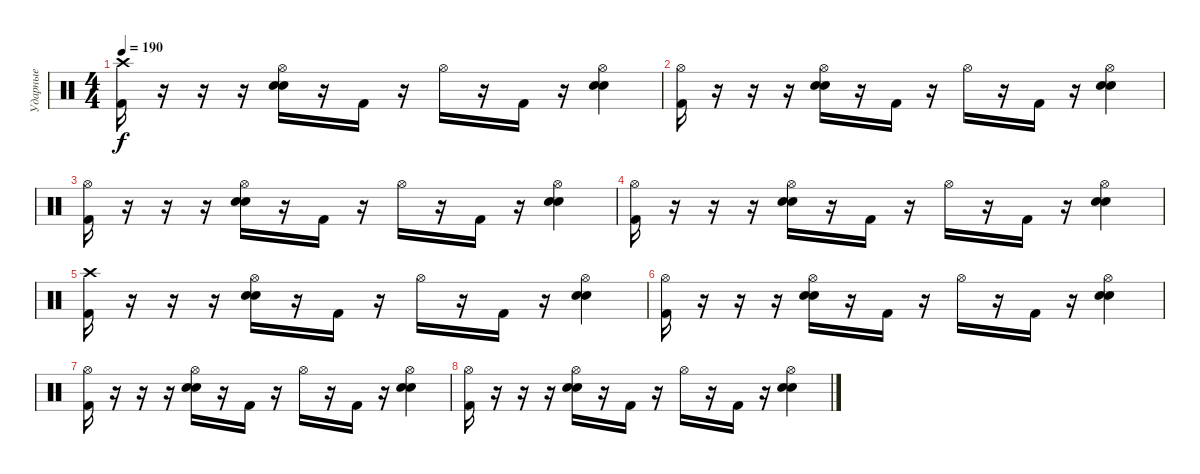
\track ("Ударные" "Ударные") {instrument percussion}
\staff {score}
\articulation defaults
\ts (4 4)
\tempo 190
\clef neutral
\ks c
("Crash high (hit)" "Kick (hit) 2").16{dy f} r.16 r.16 r.16 ("Hi-Hat (open)" "Electric Snare (hit)" "Snare (hit) 2").16 r.16 "Kick (hit) 2".16 r.16 "Hi-Hat (open)".16 r.16 "Kick (hit) 2".16 r.16 ("Hi-Hat (open)" "Electric Snare (hit)" "Snare (hit) 2").4 |
("Hi-Hat (open)" "Kick (hit) 2").16 r.16 r.16 r.16 ("Hi-Hat (open)" "Electric Snare (hit)" "Snare (hit) 2").16 r.16 "Kick (hit) 2".16 r.16 "Hi-Hat (open)".16 r.16 "Kick (hit) 2".16 r.16 ("Hi-Hat (open)" "Electric Snare (hit)" "Snare (hit) 2").4 |
("Hi-Hat (open)" "Kick (hit) 2").16 r.16 r.16 r.16 ("Hi-Hat (open)" "Electric Snare (hit)" "Snare (hit) 2").16 r.16 "Kick (hit) 2".16 r.16 "Hi-Hat (open)".16 r.16 "Kick (hit) 2".16 r.16 ("Hi-Hat (open)" "Electric Snare (hit)" "Snare (hit) 2").4 |
("Hi-Hat (open)" "Kick (hit) 2").16 r.16 r.16 r.16 ("Hi-Hat (open)" "Electric Snare (hit)" "Snare (hit) 2").16 r.16 "Kick (hit) 2".16 r.16 "Hi-Hat (open)".16 r.16 "Kick (hit) 2".16 r.16 ("Hi-Hat (open)" "Electric Snare (hit)" "Snare (hit) 2").4 |
("Crash high (hit)" "Kick (hit) 2").16 r.16 r.16 r.16 ("Hi-Hat (open)" "Electric Snare (hit)" "Snare (hit) 2").16 r.16 "Kick (hit) 2".16 r.16 "Hi-Hat (open)".16 r.16 "Kick (hit) 2".16 r.16 ("Hi-Hat (open)" "Electric Snare (hit)" "Snare (hit) 2").4 |
("Hi-Hat (open)" "Kick (hit) 2").16 r.16 r.16 r.16 ("Hi-Hat (open)" "Electric Snare (hit)" "Snare (hit) 2").16 r.16 "Kick (hit) 2".16 r.16 "Hi-Hat (open)".16 r.16 "Kick (hit) 2".16 r.16 ("Hi-Hat (open)" "Electric Snare (hit)" "Snare (hit) 2").4 |
("Hi-Hat (open)" "Kick (hit) 2").16 r.16 r.16 r.16 ("Hi-Hat (open)" "Electric Snare (hit)" "Snare (hit) 2").16 r.16 "Kick (hit) 2".16 r.16 "Hi-Hat (open)".16 r.16 "Kick (hit) 2".16 r.16 ("Hi-Hat (open)" "Electric Snare (hit)" "Snare (hit) 2").4 |
("Hi-Hat (open)" "Kick (hit) 2").16 r.16 r.16 r.16 ("Hi-Hat (open)" "Electric Snare (hit)" "Snare (hit) 2").16 r.16 "Kick (hit) 2".16 r.16 "Hi-Hat (open)".16 r.16 "Kick (hit) 2".16 r.16 ("Hi-Hat (open)" "Electric Snare (hit)" "Snare (hit) 2").4
